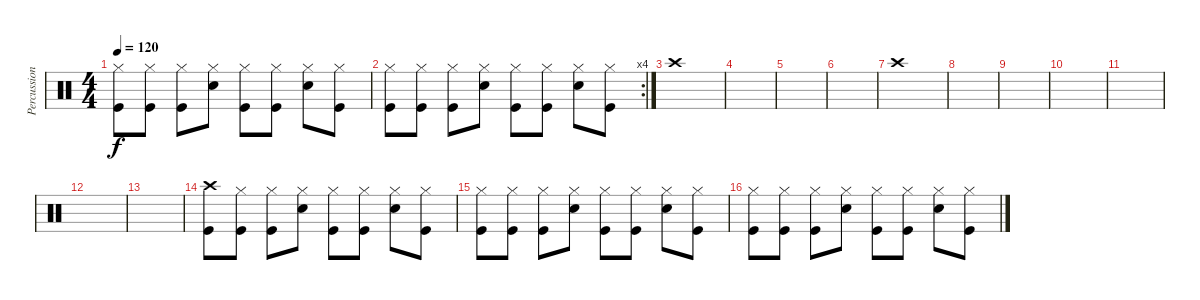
\track ("Percussions" "Percussion") {instrument percussion}
\staff {score}
\articulation defaults
\ts (4 4)
\tempo 120
\clef neutral
\ks c
("Hi-Hat (closed)" "Kick (hit)").8{dy f} ("Hi-Hat (closed)" "Kick (hit)").8 ("Hi-Hat (closed)" "Kick (hit)").8 ("Hi-Hat (closed)" "Electric Snare (hit)").8 ("Hi-Hat (closed)" "Kick (hit)").8 ("Hi-Hat (closed)" "Kick (hit)").8 ("Hi-Hat (closed)" "Electric Snare (hit)").8 ("Hi-Hat (closed)" "Kick (hit)").8 |
\rc 4
("Hi-Hat (closed)" "Kick (hit)").8 ("Hi-Hat (closed)" "Kick (hit)").8 ("Hi-Hat (closed)" "Kick (hit)").8 ("Hi-Hat (closed)" "Electric Snare (hit)").8 ("Hi-Hat (closed)" "Kick (hit)").8 ("Hi-Hat (closed)" "Kick (hit)").8 ("Hi-Hat (closed)" "Electric Snare (hit)").8 ("Hi-Hat (closed)" "Kick (hit)").8 |
"Crash high (hit)".1 |
|
|
|
"Crash high (hit)".1 |
|
|
|
|
|
|
("Crash high (hit)" "Kick (hit)").8 ("Hi-Hat (closed)" "Kick (hit)").8 ("Hi-Hat (closed)" "Kick (hit)").8 ("Hi-Hat (closed)" "Electric Snare (hit)").8 ("Hi-Hat (closed)" "Kick (hit)").8 ("Hi-Hat (closed)" "Kick (hit)").8 ("Hi-Hat (closed)" "Electric Snare (hit)").8 ("Hi-Hat (closed)" "Kick (hit)").8 |
("Hi-Hat (closed)" "Kick (hit)").8 ("Hi-Hat (closed)" "Kick (hit)").8 ("Hi-Hat (closed)" "Kick (hit)").8 ("Hi-Hat (closed)" "Electric Snare (hit)").8 ("Hi-Hat (closed)" "Kick (hit)").8 ("Hi-Hat (closed)" "Kick (hit)").8 ("Hi-Hat (closed)" "Electric Snare (hit)").8 ("Hi-Hat (closed)" "Kick (hit)").8 |
("Hi-Hat (closed)" "Kick (hit)").8 ("Hi-Hat (closed)" "Kick (hit)").8 ("Hi-Hat (closed)" "Kick (hit)").8 ("Hi-Hat (closed)" "Electric Snare (hit)").8 ("Hi-Hat (closed)" "Kick (hit)").8 ("Hi-Hat (closed)" "Kick (hit)").8 ("Hi-Hat (closed)" "Electric Snare (hit)").8 ("Hi-Hat (closed)" "Kick (hit)").8
